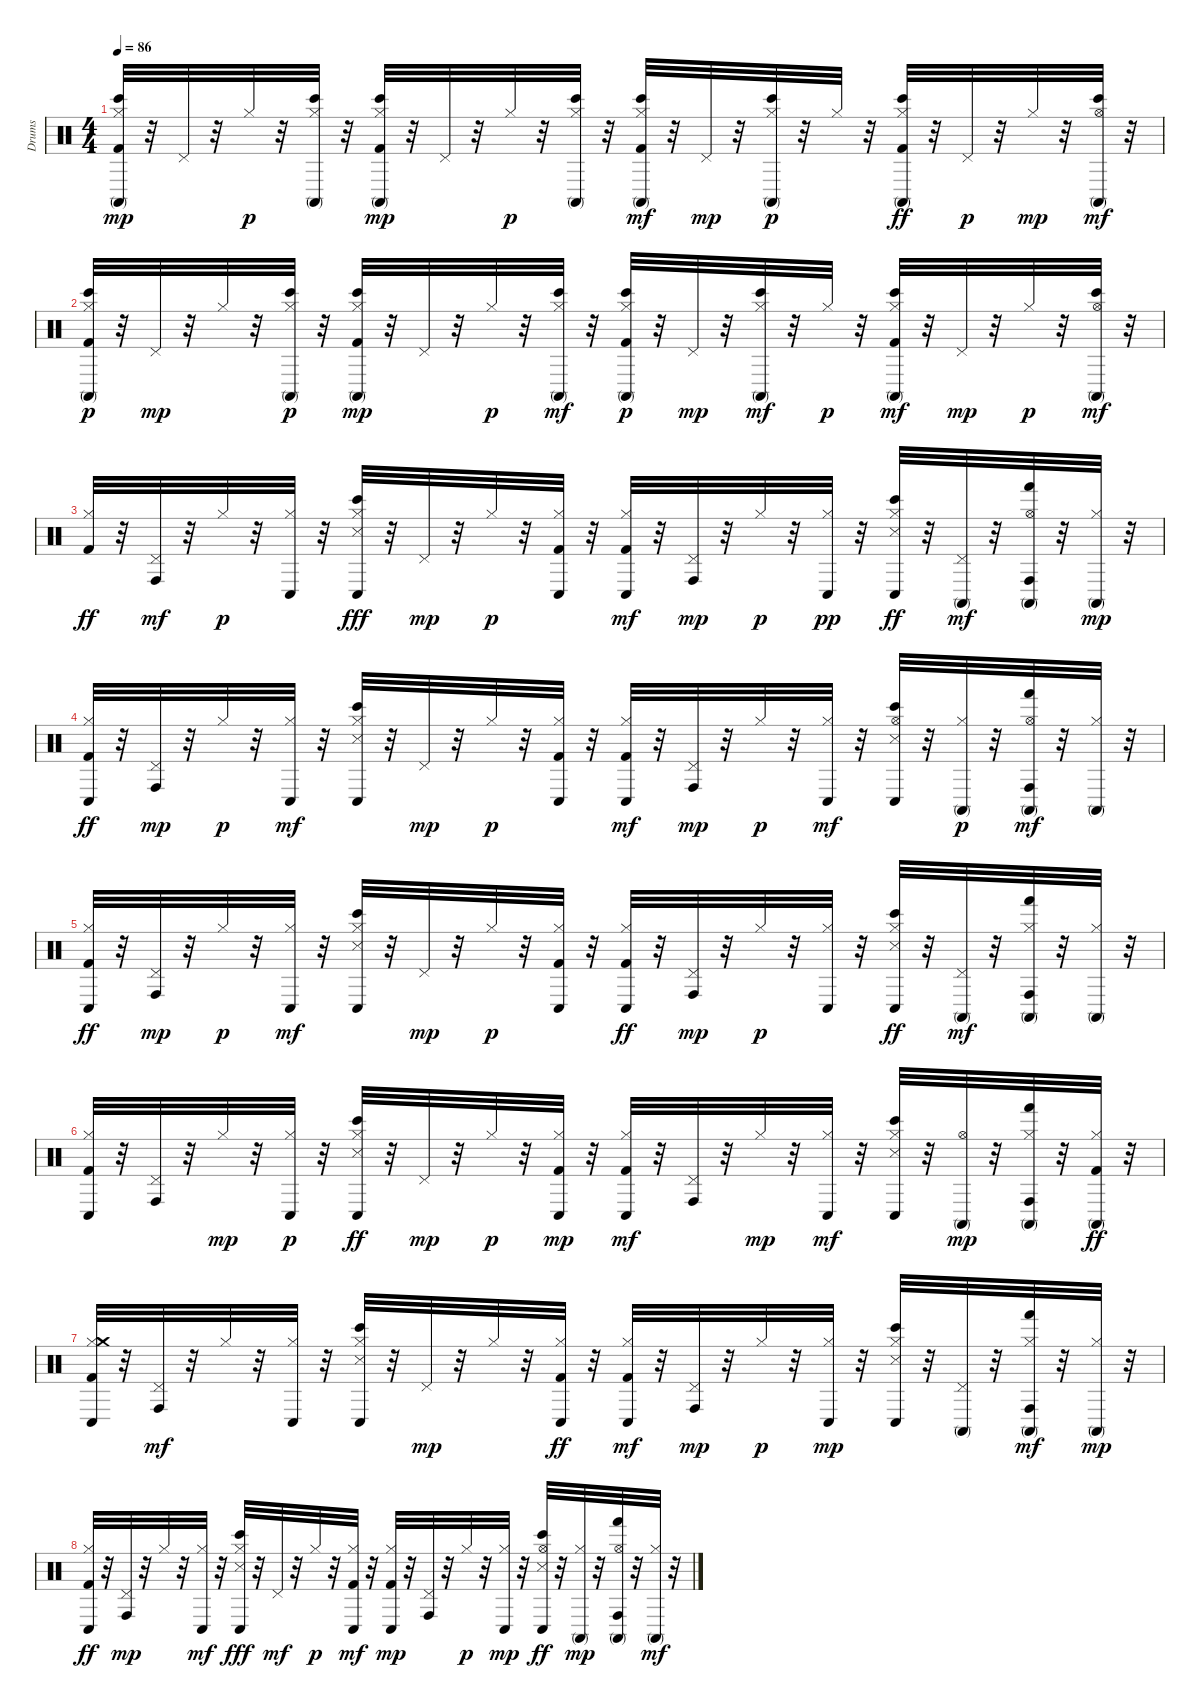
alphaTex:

\track ("Drums" "Drums") {instrument percussion}
\staff {score}
\articulation defaults
\ts (4 4)
\tempo 86
\clef neutral
\ks c
("Kick (hit) 2" "Bongo High (hit)" "Hi-Hat (closed)" "Conga high (mute)").32{dy mp} r.32 "Pedal Hi-Hat (hit)".32 r.32 "Hi-Hat (closed)".32{dy p} r.32 ("Bongo High (hit)" "Conga high (mute)" "Hi-Hat (closed)").32 r.32 ("Conga high (mute)" "Bongo High (hit)" "Kick (hit) 2" "Hi-Hat (closed)").32{dy mp} r.32 "Pedal Hi-Hat (hit)".32 r.32 "Hi-Hat (closed)".32{dy p} r.32 ("Bongo High (hit)" "Conga high (mute)" "Hi-Hat (closed)").32 r.32 ("Conga high (mute)" "Bongo High (hit)" "Hi-Hat (closed)" "Kick (hit) 2").32{dy mf} r.32 "Pedal Hi-Hat (hit)".32{dy mp} r.32 ("Conga high (mute)" "Bongo High (hit)" "Hi-Hat (closed)").32{dy p} r.32 "Hi-Hat (closed)".32 r.32 ("Conga high (mute)" "Bongo High (hit)" "Hi-Hat (closed)" "Kick (hit) 2").32{dy ff} r.32 "Pedal Hi-Hat (hit)".32{dy p} r.32 "Hi-Hat (closed)".32{dy mp} r.32 ("Hi-Hat (open)" "Bongo High (hit)" "Conga high (mute)").32{dy mf} r.32 |
("Bongo High (hit)" "Conga high (mute)" "Hi-Hat (closed)" "Kick (hit) 2").32{dy p} r.32 "Pedal Hi-Hat (hit)".32{dy mp} r.32 "Hi-Hat (closed)".32 r.32 ("Conga high (mute)" "Bongo High (hit)" "Hi-Hat (closed)").32{dy p} r.32 ("Bongo High (hit)" "Conga high (mute)" "Kick (hit) 2" "Hi-Hat (closed)").32{dy mp} r.32 "Pedal Hi-Hat (hit)".32 r.32 "Hi-Hat (closed)".32{dy p} r.32 ("Hi-Hat (closed)" "Conga high (mute)" "Bongo High (hit)").32{dy mf} r.32 ("Bongo High (hit)" "Kick (hit) 2" "Hi-Hat (closed)" "Conga high (mute)").32{dy p} r.32 "Pedal Hi-Hat (hit)".32{dy mp} r.32 ("Hi-Hat (closed)" "Bongo High (hit)" "Conga high (mute)").32{dy mf} r.32 "Hi-Hat (closed)".32{dy p} r.32 ("Bongo High (hit)" "Conga high (mute)" "Kick (hit) 2" "Hi-Hat (closed)").32{dy mf} r.32 "Pedal Hi-Hat (hit)".32{dy mp} r.32 "Hi-Hat (closed)".32{dy p} r.32 ("Hi-Hat (open)" "Bongo High (hit)" "Conga high (mute)").32{dy mf} r.32 |
("Kick (hit) 2" "Hi-Hat (closed)").32{dy ff} r.32 ("Conga high (hit)" "Pedal Hi-Hat (hit)").32{dy mf} r.32 "Hi-Hat (closed)".32{dy p} r.32 ("Conga low (hit)" "Hi-Hat (closed)").32 r.32 ("Bongo High (hit)" "Conga low (hit)" "Snare (side stick) 3" "Hi-Hat (closed)").32{dy fff} r.32 "Pedal Hi-Hat (hit)".32{dy mp} r.32 "Hi-Hat (closed)".32{dy p} r.32 ("Conga low (hit)" "Hi-Hat (closed)" "Kick (hit) 2").32 r.32 ("Conga low (hit)" "Kick (hit) 2" "Hi-Hat (closed)").32{dy mf} r.32 ("Pedal Hi-Hat (hit)" "Conga high (hit)").32{dy mp} r.32 "Hi-Hat (closed)".32{dy p} r.32 ("Conga low (hit)" "Hi-Hat (closed)").32{dy pp} r.32 ("Bongo High (hit)" "Conga low (hit)" "Snare (side stick) 3" "Hi-Hat (closed)").32{dy ff} r.32 ("Conga high (mute)" "Pedal Hi-Hat (hit)").32{dy mf} r.32 ("Hi-Hat (open)" "Conga high (mute)" "Conga high (hit)" "Hand (hit)").32 r.32 ("Conga high (mute)" "Hi-Hat (closed)").32{dy mp} r.32 |
("Hi-Hat (closed)" "Conga low (hit)" "Kick (hit) 2").32{dy ff} r.32 ("Pedal Hi-Hat (hit)" "Conga high (hit)").32{dy mp} r.32 "Hi-Hat (closed)".32{dy p} r.32 ("Hi-Hat (closed)" "Conga low (hit)").32{dy mf} r.32 ("Snare (side stick) 3" "Hi-Hat (closed)" "Conga low (hit)" "Bongo High (hit)").32 r.32 "Pedal Hi-Hat (hit)".32{dy mp} r.32 "Hi-Hat (closed)".32{dy p} r.32 ("Conga low (hit)" "Kick (hit) 2" "Hi-Hat (closed)").32 r.32 ("Conga low (hit)" "Kick (hit) 2" "Hi-Hat (closed)").32{dy mf} r.32 ("Conga high (hit)" "Pedal Hi-Hat (hit)").32{dy mp} r.32 "Hi-Hat (closed)".32{dy p} r.32 ("Hi-Hat (closed)" "Conga low (hit)").32{dy mf} r.32 ("Bongo High (hit)" "Conga low (hit)" "Snare (side stick) 3" "Hi-Hat (open)").32 r.32 ("Conga high (mute)" "Hi-Hat (closed)").32{dy p} r.32 ("Hi-Hat (open)" "Conga high (hit)" "Conga high (mute)" "Hand (hit)").32{dy mf} r.32 ("Hi-Hat (closed)" "Conga high (mute)").32 r.32 |
("Conga low (hit)" "Kick (hit) 2" "Hi-Hat (closed)").32{dy ff} r.32 ("Conga high (hit)" "Pedal Hi-Hat (hit)").32{dy mp} r.32 "Hi-Hat (closed)".32{dy p} r.32 ("Hi-Hat (closed)" "Conga low (hit)").32{dy mf} r.32 ("Snare (side stick) 3" "Bongo High (hit)" "Hi-Hat (closed)" "Conga low (hit)").32 r.32 "Pedal Hi-Hat (hit)".32{dy mp} r.32 "Hi-Hat (closed)".32{dy p} r.32 ("Kick (hit) 2" "Conga low (hit)" "Hi-Hat (closed)").32 r.32 ("Conga low (hit)" "Hi-Hat (closed)" "Kick (hit) 2").32{dy ff} r.32 ("Pedal Hi-Hat (hit)" "Conga high (hit)").32{dy mp} r.32 "Hi-Hat (closed)".32{dy p} r.32 ("Conga low (hit)" "Hi-Hat (closed)").32 r.32 ("Conga low (hit)" "Bongo High (hit)" "Snare (side stick) 3" "Hi-Hat (closed)").32{dy ff} r.32 ("Conga high (mute)" "Pedal Hi-Hat (hit)").32{dy mf} r.32 ("Conga high (hit)" "Conga high (mute)" "Hi-Hat (closed)" "Hand (hit)").32 r.32 ("Hi-Hat (closed)" "Conga high (mute)").32 r.32 |
("Kick (hit) 2" "Hi-Hat (closed)" "Conga low (hit)").32 r.32 ("Pedal Hi-Hat (hit)" "Conga high (hit)").32 r.32 "Hi-Hat (closed)".32{dy mp} r.32 ("Conga low (hit)" "Hi-Hat (closed)").32{dy p} r.32 ("Conga low (hit)" "Bongo High (hit)" "Snare (side stick) 3" "Hi-Hat (closed)").32{dy ff} r.32 "Pedal Hi-Hat (hit)".32{dy mp} r.32 "Hi-Hat (closed)".32{dy p} r.32 ("Kick (hit) 2" "Conga low (hit)" "Hi-Hat (closed)").32{dy mp} r.32 ("Hi-Hat (closed)" "Conga low (hit)" "Kick (hit) 2").32{dy mf} r.32 ("Conga high (hit)" "Pedal Hi-Hat (hit)").32 r.32 "Hi-Hat (closed)".32{dy mp} r.32 ("Hi-Hat (closed)" "Conga low (hit)").32{dy mf} r.32 ("Bongo High (hit)" "Snare (side stick) 3" "Conga low (hit)" "Hi-Hat (closed)").32 r.32 ("Conga high (mute)" "Hi-Hat (open)").32{dy mp} r.32 ("Hi-Hat (closed)" "Conga high (hit)" "Conga high (mute)" "Hand (hit)").32 r.32 ("Conga high (mute)" "Hi-Hat (closed)" "Kick (hit) 2").32{dy ff} r.32 |
("Hi-Hat (closed)" "Crash medium (hit)" "Conga low (hit)" "Kick (hit) 2").32 r.32 ("Pedal Hi-Hat (hit)" "Conga high (hit)").32{dy mf} r.32 "Hi-Hat (closed)".32 r.32 ("Hi-Hat (closed)" "Conga low (hit)").32 r.32 ("Hi-Hat (closed)" "Conga low (hit)" "Bongo High (hit)" "Snare (side stick) 3").32 r.32 "Pedal Hi-Hat (hit)".32{dy mp} r.32 "Hi-Hat (closed)".32 r.32 ("Hi-Hat (closed)" "Conga low (hit)" "Kick (hit) 2").32{dy ff} r.32 ("Hi-Hat (closed)" "Kick (hit) 2" "Conga low (hit)").32{dy mf} r.32 ("Pedal Hi-Hat (hit)" "Conga high (hit)").32{dy mp} r.32 "Hi-Hat (closed)".32{dy p} r.32 ("Conga low (hit)" "Hi-Hat (closed)").32{dy mp} r.32 ("Conga low (hit)" "Snare (side stick) 3" "Bongo High (hit)" "Hi-Hat (closed)").32 r.32 ("Conga high (mute)" "Pedal Hi-Hat (hit)").32 r.32 ("Hi-Hat (closed)" "Conga high (hit)" "Conga high (mute)" "Hand (hit)").32{dy mf} r.32 ("Conga high (mute)" "Hi-Hat (closed)").32{dy mp} r.32 |
("Conga low (hit)" "Kick (hit) 2" "Hi-Hat (closed)").32{dy ff} r.32 ("Pedal Hi-Hat (hit)" "Conga high (hit)").32{dy mp} r.32 "Hi-Hat (closed)".32 r.32 ("Hi-Hat (closed)" "Conga low (hit)").32{dy mf} r.32 ("Conga low (hit)" "Bongo High (hit)" "Hi-Hat (closed)" "Snare (side stick) 3").32{dy fff} r.32 "Pedal Hi-Hat (hit)".32{dy mf} r.32 "Hi-Hat (closed)".32{dy p} r.32 ("Hi-Hat (closed)" "Conga low (hit)" "Kick (hit) 2").32{dy mf} r.32 ("Conga low (hit)" "Hi-Hat (closed)" "Kick (hit) 2").32{dy mp} r.32 ("Pedal Hi-Hat (hit)" "Conga high (hit)").32 r.32 "Hi-Hat (closed)".32{dy p} r.32 ("Conga low (hit)" "Hi-Hat (closed)").32{dy mp} r.32 ("Bongo High (hit)" "Conga low (hit)" "Hi-Hat (open)" "Snare (side stick) 3").32{dy ff} r.32 ("Conga high (mute)" "Hi-Hat (closed)").32{dy mp} r.32 ("Conga high (mute)" "Hi-Hat (open)" "Conga high (hit)" "Hand (hit)").32 r.32 ("Hi-Hat (closed)" "Conga high (mute)").32{dy mf} r.32
